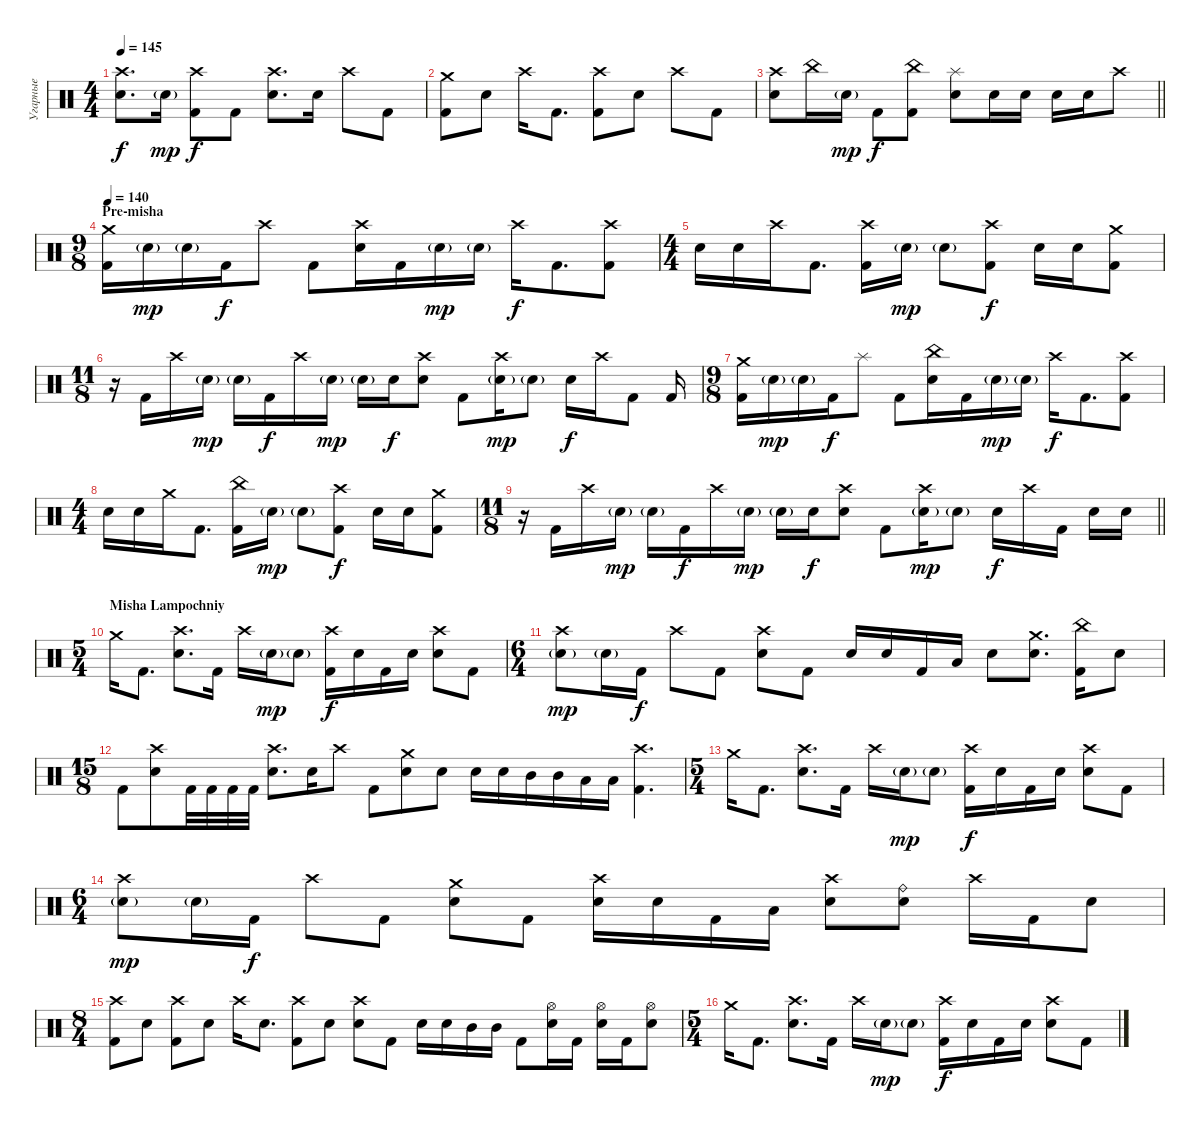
\track ("Угарные" "Угарные") {instrument percussion}
\staff {score}
\articulation defaults
\ts (4 4)
\tempo 145
\clef neutral
\ks c
("Electric Snare (hit)" "Crash high (hit)").8{d dy f} "Electric Snare (hit)"{g}.16{dy mp} ("Kick (hit) 2" "Crash high (hit)").8{dy f} "Kick (hit) 2".8 ("Electric Snare (hit)" "Crash high (hit)").8{d} "Electric Snare (hit)".16 "Crash high (hit)".8 "Kick (hit) 2".8 |
("Kick (hit) 2" "Crash medium (hit)").8 "Electric Snare (hit)".8 "Crash high (hit)".16 "Kick (hit) 2".8{d} ("Kick (hit) 2" "Crash high (hit)").8 "Electric Snare (hit)".8 "Crash high (hit)".8 "Kick (hit) 2".8 |
\barLineRight lightlight
("Electric Snare (hit)" "Crash high (hit)").8 "China (hit)".16 "Electric Snare (hit)"{g}.16{dy mp} "Kick (hit) 2".8{dy f} ("Kick (hit) 2" "China (hit)").8 ("Electric Snare (hit)" "Splash (hit)").8 "Electric Snare (hit)".16 "Electric Snare (hit)".16 "Electric Snare (hit)".16 "Electric Snare (hit)".16 "Crash high (hit)".8 |
\ts (9 8)
\section ("" "Pre-misha")
\tempo 140
("Kick (hit) 2" "Crash medium (hit)").16 "Electric Snare (hit)"{g}.16{dy mp} "Electric Snare (hit)"{g}.16 "Kick (hit) 2".16{dy f} "Crash high (hit)".8 "Kick (hit) 2".8 ("Electric Snare (hit)" "Crash high (hit)").16 "Kick (hit) 2".16 "Electric Snare (hit)"{g}.16{dy mp} "Electric Snare (hit)"{g}.16 "Crash high (hit)".16{dy f} "Kick (hit) 2".8{d} ("Kick (hit) 2" "Crash high (hit)").8 |
\ts (4 4)
"Electric Snare (hit)".16 "Electric Snare (hit)".16 "Crash high (hit)".16 "Kick (hit) 2".8{d} ("Kick (hit) 2" "Crash high (hit)").16 "Electric Snare (hit)"{g}.16{dy mp} "Electric Snare (hit)"{g}.8 ("Kick (hit) 2" "Crash high (hit)").8{dy f} "Electric Snare (hit)".16 "Electric Snare (hit)".16 ("Kick (hit) 2" "Crash medium (hit)").8 |
\ts (11 8)
r.16 "Kick (hit) 2".16 "Crash high (hit)".16 "Electric Snare (hit)"{g}.16{dy mp} "Electric Snare (hit)"{g}.16 "Kick (hit) 2".16{dy f} "Crash high (hit)".16 "Electric Snare (hit)"{g}.16{dy mp} "Electric Snare (hit)"{g}.16 "Electric Snare (hit)".16{dy f} ("Electric Snare (hit)" "Crash high (hit)").8 "Kick (hit) 2".8 ("Electric Snare (hit)"{g} "Crash high (hit)").16{dy mp} "Electric Snare (hit)"{g}.8 "Electric Snare (hit)".16{dy f} "Crash high (hit)".16 "Kick (hit) 2".8 "Kick (hit) 2".16 |
\ts (9 8)
("Kick (hit) 2" "Crash medium (hit)").16 "Electric Snare (hit)"{g}.16{dy mp} "Electric Snare (hit)"{g}.16 "Kick (hit) 2".16{dy f} "Splash (hit)".8 "Kick (hit) 2".8 ("Electric Snare (hit)" "China (hit)").16 "Kick (hit) 2".16 "Electric Snare (hit)"{g}.16{dy mp} "Electric Snare (hit)"{g}.16 "Crash high (hit)".16{dy f} "Kick (hit) 2".8{d} ("Kick (hit) 2" "Crash high (hit)").8 |
\ts (4 4)
"Electric Snare (hit)".16 "Electric Snare (hit)".16 "Crash medium (hit)".16 "Kick (hit) 2".8{d} ("Kick (hit) 2" "China (hit)").16 "Electric Snare (hit)"{g}.16{dy mp} "Electric Snare (hit)"{g}.8 ("Kick (hit) 2" "Crash high (hit)").8{dy f} "Electric Snare (hit)".16 "Electric Snare (hit)".16 ("Kick (hit) 2" "Crash medium (hit)").8 |
\ts (11 8)
\barLineRight lightlight
r.16 "Kick (hit) 2".16 "Crash high (hit)".16 "Electric Snare (hit)"{g}.16{dy mp} "Electric Snare (hit)"{g}.16 "Kick (hit) 2".16{dy f} "Crash high (hit)".16 "Electric Snare (hit)"{g}.16{dy mp} "Electric Snare (hit)"{g}.16 "Electric Snare (hit)".16{dy f} ("Electric Snare (hit)" "Crash high (hit)").8 "Kick (hit) 2".8 ("Electric Snare (hit)"{g} "Crash high (hit)").16{dy mp} "Electric Snare (hit)"{g}.8 "Electric Snare (hit)".16{dy f} "Crash high (hit)".16 "Kick (hit) 2".16 "Electric Snare (hit)".16 "Electric Snare (hit)".16 |
\ts (5 4)
\section ("" "Misha Lampochniy")
"Crash medium (hit)".16 "Kick (hit) 2".8{d} ("Electric Snare (hit)" "Crash high (hit)").8{d} "Kick (hit) 2".16 "Crash high (hit)".16 "Electric Snare (hit)"{g}.16{dy mp} "Electric Snare (hit)"{g}.8 ("Kick (hit) 2" "Crash high (hit)").16{dy f} "Electric Snare (hit)".16 "Kick (hit) 2".16 "Electric Snare (hit)".16 ("Electric Snare (hit)" "Crash high (hit)").8 "Kick (hit) 2".8 |
\ts (6 4)
("Electric Snare (hit)"{g} "Crash high (hit)").8{dy mp} "Electric Snare (hit)"{g}.16 "Kick (hit) 2".16{dy f} "Crash high (hit)".8 "Kick (hit) 2".8 ("Electric Snare (hit)" "Crash high (hit)").8 "Kick (hit) 2".8 "Electric Snare (hit)".16 "Electric Snare (hit)".16 "Kick (hit) 2".16 "Low Floor Tom (hit)".16 "Electric Snare (hit)".8 ("Electric Snare (hit)" "Crash medium (hit)").8{d} ("Kick (hit) 2" "China (hit)").16 "Electric Snare (hit)".8 |
\ts (15 8)
"Kick (hit) 2".8 ("Electric Snare (hit)" "Crash high (hit)").8 "Kick (hit) 2".32 "Kick (hit) 2".32 "Kick (hit) 2".32 "Kick (hit) 2".32 ("Electric Snare (hit)" "Crash high (hit)").8{d} "Electric Snare (hit)".16 "Crash high (hit)".8 "Kick (hit) 2".8 ("Electric Snare (hit)" "Crash medium (hit)").8 "Electric Snare (hit)".8 "Electric Snare (hit)".16 "Electric Snare (hit)".16 "Mid Tom (hit)".16 "Mid Tom (hit)".16 "Low Tom (hit)".16 "Low Tom (hit)".16 ("Kick (hit) 2" "Crash high (hit)").4{d} |
\ts (5 4)
"Crash medium (hit)".16 "Kick (hit) 2".8{d} ("Electric Snare (hit)" "Crash high (hit)").8{d} "Kick (hit) 2".16 "Crash high (hit)".16 "Electric Snare (hit)"{g}.16{dy mp} "Electric Snare (hit)"{g}.8 ("Kick (hit) 2" "Crash high (hit)").16{dy f} "Electric Snare (hit)".16 "Kick (hit) 2".16 "Electric Snare (hit)".16 ("Electric Snare (hit)" "Crash high (hit)").8 "Kick (hit) 2".8 |
\ts (6 4)
("Electric Snare (hit)"{g} "Crash high (hit)").8{dy mp} "Electric Snare (hit)"{g}.16 "Kick (hit) 2".16{dy f} "Crash high (hit)".8 "Kick (hit) 2".8 ("Electric Snare (hit)" "Crash medium (hit)").8 "Kick (hit) 2".8 ("Electric Snare (hit)" "Crash high (hit)").16 "Electric Snare (hit)".16 "Kick (hit) 2".16 "Low Floor Tom (hit)".16 ("Electric Snare (hit)" "Crash high (hit)").8 ("Electric Snare (hit)" "Ride (bell)").8 "Crash high (hit)".16 "Kick (hit) 2".16 "Electric Snare (hit)".8 |
\ts (8 4)
("Kick (hit) 2" "Crash high (hit)").8 "Electric Snare (hit)".8 ("Kick (hit) 2" "Crash high (hit)").8 "Electric Snare (hit)".8 "Crash high (hit)".16 "Electric Snare (hit)".8{d} ("Kick (hit) 2" "Crash high (hit)").8 "Electric Snare (hit)".8 ("Electric Snare (hit)" "Crash high (hit)").8 "Kick (hit) 2".8 "Electric Snare (hit)".16 "Electric Snare (hit)".16 "Mid Tom (hit)".16 "Mid Tom (hit)".16 "Kick (hit) 2".8 ("Electric Snare (hit)" "Hi-Hat (open)").16 "Kick (hit) 2".16 ("Electric Snare (hit)" "Hi-Hat (open)").16 "Kick (hit) 2".16 ("Electric Snare (hit)" "Hi-Hat (open)").8 |
\ts (5 4)
"Crash medium (hit)".16 "Kick (hit) 2".8{d} ("Electric Snare (hit)" "Crash high (hit)").8{d} "Kick (hit) 2".16 "Crash high (hit)".16 "Electric Snare (hit)"{g}.16{dy mp} "Electric Snare (hit)"{g}.8 ("Kick (hit) 2" "Crash high (hit)").16{dy f} "Electric Snare (hit)".16 "Kick (hit) 2".16 "Electric Snare (hit)".16 ("Electric Snare (hit)" "Crash high (hit)").8 "Kick (hit) 2".8
